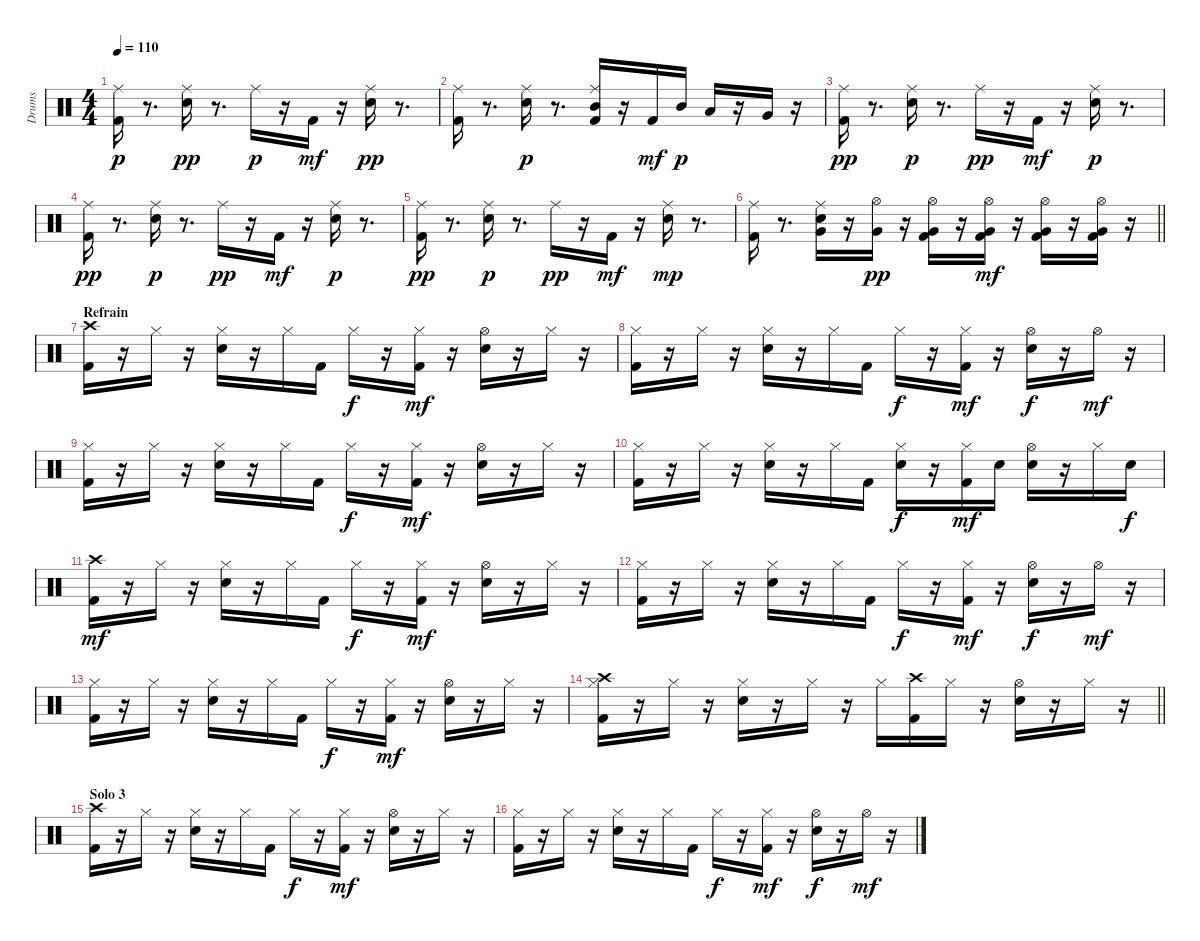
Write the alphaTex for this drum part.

\track ("Drums" "Drums") {instrument percussion}
\staff {score}
\articulation defaults
\ts (4 4)
\tempo 110
\clef neutral
\ks c
("Kick (hit) 2" "Ride (middle)").16{dy p} r.8{d} ("Snare (hit) 2" "Ride (middle)").16{dy pp} r.8{d} "Ride (middle)".16{dy p} r.16 "Kick (hit) 2".16{dy mf} r.16 ("Snare (hit) 2" "Ride (middle)").16{dy pp} r.8{d} |
("Kick (hit) 2" "Ride (middle)").16 r.8{d} ("Snare (hit) 2" "Ride (middle)").16{dy p} r.8{d} ("Kick (hit) 2" "Mid Tom (hit)" "Ride (middle)").16 r.16 "Kick (hit) 2".16{dy mf} "Mid Tom (hit)".16{dy p} "Low Tom (hit)".16 r.16 "Very Low Tom (hit)".16 r.16 |
("Kick (hit) 2" "Ride (middle)").16{dy pp} r.8{d} ("Snare (hit) 2" "Ride (middle)").16{dy p} r.8{d} "Ride (middle)".16{dy pp} r.16 "Kick (hit) 2".16{dy mf} r.16 ("Snare (hit) 2" "Ride (middle)").16{dy p} r.8{d} |
("Kick (hit) 2" "Ride (middle)").16{dy pp} r.8{d} ("Snare (hit) 2" "Ride (middle)").16{dy p} r.8{d} "Ride (middle)".16{dy pp} r.16 "Kick (hit) 2".16{dy mf} r.16 ("Snare (hit) 2" "Ride (middle)").16{dy p} r.8{d} |
("Kick (hit) 2" "Ride (middle)").16{dy pp} r.8{d} ("Snare (hit) 2" "Ride (middle)").16{dy p} r.8{d} "Ride (middle)".16{dy pp} r.16 "Kick (hit) 2".16{dy mf} r.16 ("Snare (hit) 2" "Ride (middle)").16{dy mp} r.8{d} |
\barLineRight lightlight
("Kick (hit) 2" "Ride (middle)").16 r.8{d} ("Snare (hit) 2" "Very Low Tom (hit)" "Ride (middle)").16 r.16 ("Very Low Tom (hit)" "Hi-Hat (open)").16{dy pp} r.16 ("Kick (hit) 2" "Very Low Tom (hit)" "Hi-Hat (open)").16 r.16 ("Kick (hit) 2" "Very Low Tom (hit)" "Hi-Hat (open)").16{dy mf} r.16 ("Kick (hit) 2" "Very Low Tom (hit)" "Hi-Hat (open)").16 r.16 ("Kick (hit) 2" "Very Low Tom (hit)" "Hi-Hat (open)").16 r.16 |
\section ("" "Refrain")
("Kick (hit) 2" "Crash high (hit)").16 r.16 "Hi-Hat (closed)".16 r.16 ("Snare (hit) 2" "Hi-Hat (closed)").16 r.16 "Hi-Hat (closed)".16 "Kick (hit) 2".16 "Hi-Hat (closed)".16{dy f} r.16 ("Kick (hit) 2" "Hi-Hat (closed)").16{dy mf} r.16 ("Snare (hit) 2" "Hi-Hat (open)").16 r.16 "Hi-Hat (closed)".16 r.16 |
("Kick (hit) 2" "Hi-Hat (closed)").16 r.16 "Hi-Hat (closed)".16 r.16 ("Snare (hit) 2" "Hi-Hat (closed)").16 r.16 "Hi-Hat (closed)".16 "Kick (hit) 2".16 "Hi-Hat (closed)".16{dy f} r.16 ("Kick (hit) 2" "Hi-Hat (closed)").16{dy mf} r.16 ("Snare (hit) 2" "Hi-Hat (open)").16{dy f} r.16 "Hi-Hat (open)".16{dy mf} r.16 |
("Kick (hit) 2" "Hi-Hat (closed)").16 r.16 "Hi-Hat (closed)".16 r.16 ("Snare (hit) 2" "Hi-Hat (closed)").16 r.16 "Hi-Hat (closed)".16 "Kick (hit) 2".16 "Hi-Hat (closed)".16{dy f} r.16 ("Kick (hit) 2" "Hi-Hat (closed)").16{dy mf} r.16 ("Snare (hit) 2" "Hi-Hat (open)").16 r.16 "Hi-Hat (closed)".16 r.16 |
("Kick (hit) 2" "Hi-Hat (closed)").16 r.16 "Hi-Hat (closed)".16 r.16 ("Snare (hit) 2" "Hi-Hat (closed)").16 r.16 "Hi-Hat (closed)".16 "Kick (hit) 2".16 ("Snare (hit) 2" "Hi-Hat (closed)").16{dy f} r.16 ("Kick (hit) 2" "Hi-Hat (closed)").16{dy mf} "Snare (hit) 2".16 ("Snare (hit) 2" "Hi-Hat (open)").16 r.16 "Hi-Hat (closed)".16 "Snare (hit) 2".16{dy f} |
("Kick (hit) 2" "Crash high (hit)").16{dy mf} r.16 "Hi-Hat (closed)".16 r.16 ("Snare (hit) 2" "Hi-Hat (closed)").16 r.16 "Hi-Hat (closed)".16 "Kick (hit) 2".16 "Hi-Hat (closed)".16{dy f} r.16 ("Kick (hit) 2" "Hi-Hat (closed)").16{dy mf} r.16 ("Snare (hit) 2" "Hi-Hat (open)").16 r.16 "Hi-Hat (closed)".16 r.16 |
("Kick (hit) 2" "Hi-Hat (closed)").16 r.16 "Hi-Hat (closed)".16 r.16 ("Snare (hit) 2" "Hi-Hat (closed)").16 r.16 "Hi-Hat (closed)".16 "Kick (hit) 2".16 "Hi-Hat (closed)".16{dy f} r.16 ("Kick (hit) 2" "Hi-Hat (closed)").16{dy mf} r.16 ("Snare (hit) 2" "Hi-Hat (open)").16{dy f} r.16 "Hi-Hat (open)".16{dy mf} r.16 |
("Kick (hit) 2" "Hi-Hat (closed)").16 r.16 "Hi-Hat (closed)".16 r.16 ("Snare (hit) 2" "Hi-Hat (closed)").16 r.16 "Hi-Hat (closed)".16 "Kick (hit) 2".16 "Hi-Hat (closed)".16{dy f} r.16 ("Kick (hit) 2" "Hi-Hat (closed)").16{dy mf} r.16 ("Snare (hit) 2" "Hi-Hat (open)").16 r.16 "Hi-Hat (closed)".16 r.16 |
\barLineRight lightlight
("Kick (hit) 2" "Hi-Hat (closed)" "Crash high (hit)").16 r.16 "Hi-Hat (closed)".16 r.16 ("Snare (hit) 2" "Hi-Hat (closed)").16 r.16 "Hi-Hat (closed)".16 r.16 "Hi-Hat (closed)".16 ("Kick (hit) 2" "Crash high (hit)").16 "Hi-Hat (closed)".16 r.16 ("Snare (hit) 2" "Hi-Hat (open)").16 r.16 "Hi-Hat (closed)".16 r.16 |
\section ("" "Solo 3")
("Kick (hit) 2" "Crash high (hit)").16 r.16 "Hi-Hat (closed)".16 r.16 ("Snare (hit) 2" "Hi-Hat (closed)").16 r.16 "Hi-Hat (closed)".16 "Kick (hit) 2".16 "Hi-Hat (closed)".16{dy f} r.16 ("Kick (hit) 2" "Hi-Hat (closed)").16{dy mf} r.16 ("Snare (hit) 2" "Hi-Hat (open)").16 r.16 "Hi-Hat (closed)".16 r.16 |
("Kick (hit) 2" "Hi-Hat (closed)").16 r.16 "Hi-Hat (closed)".16 r.16 ("Snare (hit) 2" "Hi-Hat (closed)").16 r.16 "Hi-Hat (closed)".16 "Kick (hit) 2".16 "Hi-Hat (closed)".16{dy f} r.16 ("Kick (hit) 2" "Hi-Hat (closed)").16{dy mf} r.16 ("Snare (hit) 2" "Hi-Hat (open)").16{dy f} r.16 "Hi-Hat (open)".16{dy mf} r.16
